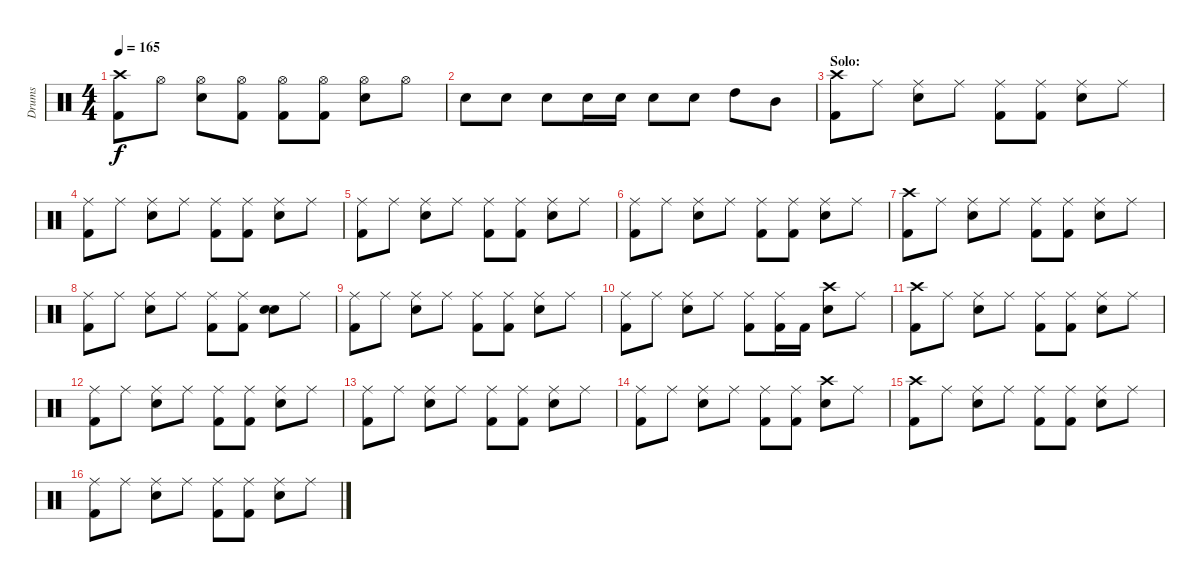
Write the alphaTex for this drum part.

\track ("Drums" "Drums") {instrument percussion}
\staff {score}
\articulation defaults
\ts (4 4)
\tempo 165
\clef neutral
\ks c
("Crash high (hit)" "Kick (hit) 2").8{dy f} "Hi-Hat (open)".8 ("Hi-Hat (open)" "Electric Snare (hit)").8 ("Hi-Hat (open)" "Kick (hit) 2").8 ("Hi-Hat (open)" "Kick (hit) 2").8 ("Hi-Hat (open)" "Kick (hit) 2").8 ("Hi-Hat (open)" "Electric Snare (hit)").8 "Hi-Hat (open)".8 |
"Electric Snare (hit)".8 "Electric Snare (hit)".8 "Electric Snare (hit)".8 "Electric Snare (hit)".16 "Electric Snare (hit)".16 "Electric Snare (hit)".8 "Electric Snare (hit)".8 "High Tom (hit)".8 "Mid Tom (hit)".8 |
\section ("" "Solo:")
("Crash high (hit)" "Kick (hit) 2").8 "Ride (middle)".8 ("Ride (middle)" "Electric Snare (hit)").8 "Ride (middle)".8 ("Ride (middle)" "Kick (hit) 2").8 ("Ride (middle)" "Kick (hit) 2").8 ("Ride (middle)" "Electric Snare (hit)").8 "Ride (middle)".8 |
("Ride (middle)" "Kick (hit) 2").8 "Ride (middle)".8 ("Ride (middle)" "Electric Snare (hit)").8 "Ride (middle)".8 ("Ride (middle)" "Kick (hit) 2").8 ("Ride (middle)" "Kick (hit) 2").8 ("Ride (middle)" "Electric Snare (hit)").8 "Ride (middle)".8 |
("Ride (middle)" "Kick (hit) 2").8 "Ride (middle)".8 ("Ride (middle)" "Electric Snare (hit)").8 "Ride (middle)".8 ("Ride (middle)" "Kick (hit) 2").8 ("Ride (middle)" "Kick (hit) 2").8 ("Ride (middle)" "Electric Snare (hit)").8 "Ride (middle)".8 |
("Ride (middle)" "Kick (hit) 2").8 "Ride (middle)".8 ("Ride (middle)" "Electric Snare (hit)").8 "Ride (middle)".8 ("Ride (middle)" "Kick (hit) 2").8 ("Ride (middle)" "Kick (hit) 2").8 ("Ride (middle)" "Electric Snare (hit)").8 "Ride (middle)".8 |
("Crash high (hit)" "Kick (hit) 2").8 "Ride (middle)".8 ("Ride (middle)" "Electric Snare (hit)").8 "Ride (middle)".8 ("Ride (middle)" "Kick (hit) 2").8 ("Ride (middle)" "Kick (hit) 2").8 ("Ride (middle)" "Electric Snare (hit)").8 "Ride (middle)".8 |
("Ride (middle)" "Kick (hit) 2").8 "Ride (middle)".8 ("Ride (middle)" "Electric Snare (hit)").8 "Ride (middle)".8 ("Ride (middle)" "Kick (hit) 2").8 ("Ride (middle)" "Kick (hit) 2").8 ("Snare (hit)" "Electric Snare (hit)").8 "Ride (middle)".8 |
("Ride (middle)" "Kick (hit) 2").8 "Ride (middle)".8 ("Ride (middle)" "Electric Snare (hit)").8 "Ride (middle)".8 ("Ride (middle)" "Kick (hit) 2").8 ("Ride (middle)" "Kick (hit) 2").8 ("Ride (middle)" "Electric Snare (hit)").8 "Ride (middle)".8 |
("Ride (middle)" "Kick (hit) 2").8 "Ride (middle)".8 ("Ride (middle)" "Electric Snare (hit)").8 "Ride (middle)".8 ("Ride (middle)" "Kick (hit) 2").8 ("Ride (middle)" "Kick (hit) 2").16 "Kick (hit) 2".16 ("Crash high (hit)" "Electric Snare (hit)").8 "Ride (middle)".8 |
("Crash high (hit)" "Kick (hit) 2").8 "Ride (middle)".8 ("Ride (middle)" "Electric Snare (hit)").8 "Ride (middle)".8 ("Ride (middle)" "Kick (hit) 2").8 ("Ride (middle)" "Kick (hit) 2").8 ("Ride (middle)" "Electric Snare (hit)").8 "Ride (middle)".8 |
("Ride (middle)" "Kick (hit) 2").8 "Ride (middle)".8 ("Ride (middle)" "Electric Snare (hit)").8 "Ride (middle)".8 ("Ride (middle)" "Kick (hit) 2").8 ("Ride (middle)" "Kick (hit) 2").8 ("Ride (middle)" "Electric Snare (hit)").8 "Ride (middle)".8 |
("Ride (middle)" "Kick (hit) 2").8 "Ride (middle)".8 ("Ride (middle)" "Electric Snare (hit)").8 "Ride (middle)".8 ("Ride (middle)" "Kick (hit) 2").8 ("Ride (middle)" "Kick (hit) 2").8 ("Ride (middle)" "Electric Snare (hit)").8 "Ride (middle)".8 |
("Ride (middle)" "Kick (hit) 2").8 "Ride (middle)".8 ("Ride (middle)" "Electric Snare (hit)").8 "Ride (middle)".8 ("Ride (middle)" "Kick (hit) 2").8 ("Ride (middle)" "Kick (hit) 2").8 ("Crash high (hit)" "Electric Snare (hit)").8 "Ride (middle)".8 |
("Crash high (hit)" "Kick (hit) 2").8 "Ride (middle)".8 ("Ride (middle)" "Electric Snare (hit)").8 "Ride (middle)".8 ("Ride (middle)" "Kick (hit) 2").8 ("Ride (middle)" "Kick (hit) 2").8 ("Ride (middle)" "Electric Snare (hit)").8 "Ride (middle)".8 |
("Ride (middle)" "Kick (hit) 2").8 "Ride (middle)".8 ("Ride (middle)" "Electric Snare (hit)").8 "Ride (middle)".8 ("Ride (middle)" "Kick (hit) 2").8 ("Ride (middle)" "Kick (hit) 2").8 ("Ride (middle)" "Electric Snare (hit)").8 "Ride (middle)".8
